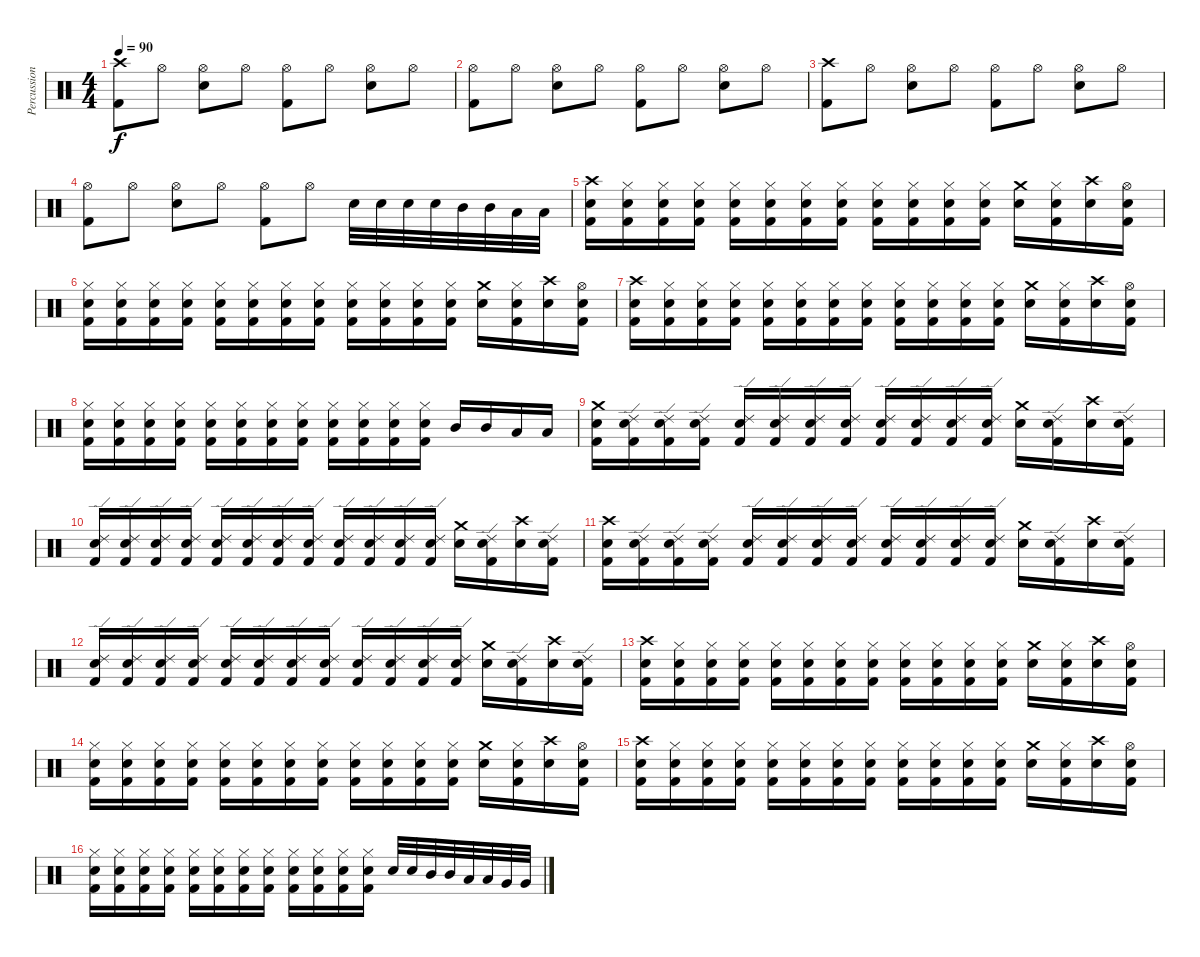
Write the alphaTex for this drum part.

\track ("Percussion" "Percussion") {instrument percussion}
\staff {score}
\articulation defaults
\ts (4 4)
\tempo 90
\clef neutral
\ks c
("Crash high (hit)" "Kick (hit) 2").8{dy f} "Hi-Hat (open)".8 ("Hi-Hat (open)" "Snare (hit) 2").8 "Hi-Hat (open)".8 ("Hi-Hat (open)" "Kick (hit) 2").8 "Hi-Hat (open)".8 ("Hi-Hat (open)" "Snare (hit) 2").8 "Hi-Hat (open)".8 |
("Hi-Hat (open)" "Kick (hit) 2").8 "Hi-Hat (open)".8 ("Hi-Hat (open)" "Snare (hit) 2").8 "Hi-Hat (open)".8 ("Hi-Hat (open)" "Kick (hit) 2").8 "Hi-Hat (open)".8 ("Hi-Hat (open)" "Snare (hit) 2").8 "Hi-Hat (open)".8 |
("Crash high (hit)" "Kick (hit) 2").8 "Hi-Hat (open)".8 ("Hi-Hat (open)" "Snare (hit) 2").8 "Hi-Hat (open)".8 ("Hi-Hat (open)" "Kick (hit) 2").8 "Hi-Hat (open)".8 ("Hi-Hat (open)" "Snare (hit) 2").8 "Hi-Hat (open)".8 |
("Hi-Hat (open)" "Kick (hit) 2").8 "Hi-Hat (open)".8 ("Hi-Hat (open)" "Snare (hit) 2").8 "Hi-Hat (open)".8 ("Hi-Hat (open)" "Kick (hit) 2").8 "Hi-Hat (open)".8 "Snare (hit) 2".32 "Snare (hit) 2".32 "Snare (hit) 2".32 "Snare (hit) 2".32 "Mid Tom (hit)".32 "Mid Tom (hit)".32 "Low Tom (hit)".32 "Low Tom (hit)".32 |
("Crash high (hit)" "Snare (hit) 2" "Kick (hit) 2").16 ("Hi-Hat (closed)" "Snare (hit) 2" "Kick (hit) 2").16 ("Hi-Hat (closed)" "Snare (hit) 2" "Kick (hit) 2").16 ("Hi-Hat (closed)" "Snare (hit) 2" "Kick (hit) 2").16 ("Hi-Hat (closed)" "Snare (hit) 2" "Kick (hit) 2").16 ("Hi-Hat (closed)" "Snare (hit) 2" "Kick (hit) 2").16 ("Hi-Hat (closed)" "Snare (hit) 2" "Kick (hit) 2").16 ("Hi-Hat (closed)" "Snare (hit) 2" "Kick (hit) 2").16 ("Hi-Hat (closed)" "Snare (hit) 2" "Kick (hit) 2").16 ("Hi-Hat (closed)" "Snare (hit) 2" "Kick (hit) 2").16 ("Hi-Hat (closed)" "Snare (hit) 2" "Kick (hit) 2").16 ("Hi-Hat (closed)" "Snare (hit) 2" "Kick (hit) 2").16 ("Crash medium (hit)" "Snare (hit) 2").16 ("Hi-Hat (closed)" "Snare (hit) 2" "Kick (hit) 2").16 ("Crash high (hit)" "Snare (hit) 2").16 ("Hi-Hat (open)" "Snare (hit) 2" "Kick (hit) 2").16 |
("Hi-Hat (closed)" "Snare (hit) 2" "Kick (hit) 2").16 ("Hi-Hat (closed)" "Snare (hit) 2" "Kick (hit) 2").16 ("Hi-Hat (closed)" "Snare (hit) 2" "Kick (hit) 2").16 ("Hi-Hat (closed)" "Snare (hit) 2" "Kick (hit) 2").16 ("Hi-Hat (closed)" "Snare (hit) 2" "Kick (hit) 2").16 ("Hi-Hat (closed)" "Snare (hit) 2" "Kick (hit) 2").16 ("Hi-Hat (closed)" "Snare (hit) 2" "Kick (hit) 2").16 ("Hi-Hat (closed)" "Snare (hit) 2" "Kick (hit) 2").16 ("Hi-Hat (closed)" "Snare (hit) 2" "Kick (hit) 2").16 ("Hi-Hat (closed)" "Snare (hit) 2" "Kick (hit) 2").16 ("Hi-Hat (closed)" "Snare (hit) 2" "Kick (hit) 2").16 ("Hi-Hat (closed)" "Snare (hit) 2" "Kick (hit) 2").16 ("Crash medium (hit)" "Snare (hit) 2").16 ("Hi-Hat (closed)" "Snare (hit) 2" "Kick (hit) 2").16 ("Crash high (hit)" "Snare (hit) 2").16 ("Hi-Hat (open)" "Snare (hit) 2" "Kick (hit) 2").16 |
("Crash high (hit)" "Snare (hit) 2" "Kick (hit) 2").16 ("Hi-Hat (closed)" "Snare (hit) 2" "Kick (hit) 2").16 ("Hi-Hat (closed)" "Snare (hit) 2" "Kick (hit) 2").16 ("Hi-Hat (closed)" "Snare (hit) 2" "Kick (hit) 2").16 ("Hi-Hat (closed)" "Snare (hit) 2" "Kick (hit) 2").16 ("Hi-Hat (closed)" "Snare (hit) 2" "Kick (hit) 2").16 ("Hi-Hat (closed)" "Snare (hit) 2" "Kick (hit) 2").16 ("Hi-Hat (closed)" "Snare (hit) 2" "Kick (hit) 2").16 ("Hi-Hat (closed)" "Snare (hit) 2" "Kick (hit) 2").16 ("Hi-Hat (closed)" "Snare (hit) 2" "Kick (hit) 2").16 ("Hi-Hat (closed)" "Snare (hit) 2" "Kick (hit) 2").16 ("Hi-Hat (closed)" "Snare (hit) 2" "Kick (hit) 2").16 ("Crash medium (hit)" "Snare (hit) 2").16 ("Hi-Hat (closed)" "Snare (hit) 2" "Kick (hit) 2").16 ("Crash high (hit)" "Snare (hit) 2").16 ("Hi-Hat (open)" "Snare (hit) 2" "Kick (hit) 2").16 |
("Hi-Hat (closed)" "Snare (hit) 2" "Kick (hit) 2").16 ("Hi-Hat (closed)" "Snare (hit) 2" "Kick (hit) 2").16 ("Hi-Hat (closed)" "Snare (hit) 2" "Kick (hit) 2").16 ("Hi-Hat (closed)" "Snare (hit) 2" "Kick (hit) 2").16 ("Hi-Hat (closed)" "Snare (hit) 2" "Kick (hit) 2").16 ("Hi-Hat (closed)" "Snare (hit) 2" "Kick (hit) 2").16 ("Hi-Hat (closed)" "Snare (hit) 2" "Kick (hit) 2").16 ("Hi-Hat (closed)" "Snare (hit) 2" "Kick (hit) 2").16 ("Hi-Hat (closed)" "Snare (hit) 2" "Kick (hit) 2").16 ("Hi-Hat (closed)" "Snare (hit) 2" "Kick (hit) 2").16 ("Hi-Hat (closed)" "Snare (hit) 2" "Kick (hit) 2").16 ("Hi-Hat (closed)" "Snare (hit) 2" "Kick (hit) 2").16 "Mid Tom (hit)".16 "Mid Tom (hit)".16 "Low Tom (hit)".16 "Low Tom (hit)".16 |
("Crash medium (hit)" "Snare (hit) 2" "Kick (hit) 2").16 ("Ride (edge) 2" "Snare (hit) 2" "Kick (hit) 2").16 ("Ride (edge) 2" "Snare (hit) 2" "Kick (hit) 2").16 ("Ride (edge) 2" "Snare (hit) 2" "Kick (hit) 2").16 ("Ride (edge) 2" "Snare (hit) 2" "Kick (hit) 2").16 ("Ride (edge) 2" "Snare (hit) 2" "Kick (hit) 2").16 ("Ride (edge) 2" "Snare (hit) 2" "Kick (hit) 2").16 ("Ride (edge) 2" "Snare (hit) 2" "Kick (hit) 2").16 ("Ride (edge) 2" "Snare (hit) 2" "Kick (hit) 2").16 ("Ride (edge) 2" "Snare (hit) 2" "Kick (hit) 2").16 ("Ride (edge) 2" "Snare (hit) 2" "Kick (hit) 2").16 ("Ride (edge) 2" "Snare (hit) 2" "Kick (hit) 2").16 ("Crash medium (hit)" "Snare (hit) 2").16 ("Ride (edge) 2" "Snare (hit) 2" "Kick (hit) 2").16 ("Crash high (hit)" "Snare (hit) 2").16 ("Ride (edge) 2" "Snare (hit) 2" "Kick (hit) 2").16 |
("Ride (edge) 2" "Snare (hit) 2" "Kick (hit) 2").16 ("Ride (edge) 2" "Snare (hit) 2" "Kick (hit) 2").16 ("Ride (edge) 2" "Snare (hit) 2" "Kick (hit) 2").16 ("Ride (edge) 2" "Snare (hit) 2" "Kick (hit) 2").16 ("Ride (edge) 2" "Snare (hit) 2" "Kick (hit) 2").16 ("Ride (edge) 2" "Snare (hit) 2" "Kick (hit) 2").16 ("Ride (edge) 2" "Snare (hit) 2" "Kick (hit) 2").16 ("Ride (edge) 2" "Snare (hit) 2" "Kick (hit) 2").16 ("Ride (edge) 2" "Snare (hit) 2" "Kick (hit) 2").16 ("Ride (edge) 2" "Snare (hit) 2" "Kick (hit) 2").16 ("Ride (edge) 2" "Snare (hit) 2" "Kick (hit) 2").16 ("Ride (edge) 2" "Snare (hit) 2" "Kick (hit) 2").16 ("Crash medium (hit)" "Snare (hit) 2").16 ("Ride (edge) 2" "Snare (hit) 2" "Kick (hit) 2").16 ("Crash high (hit)" "Snare (hit) 2").16 ("Ride (edge) 2" "Snare (hit) 2" "Kick (hit) 2").16 |
("Crash high (hit)" "Snare (hit) 2" "Kick (hit) 2").16 ("Ride (edge) 2" "Snare (hit) 2" "Kick (hit) 2").16 ("Ride (edge) 2" "Snare (hit) 2" "Kick (hit) 2").16 ("Ride (edge) 2" "Snare (hit) 2" "Kick (hit) 2").16 ("Ride (edge) 2" "Snare (hit) 2" "Kick (hit) 2").16 ("Ride (edge) 2" "Snare (hit) 2" "Kick (hit) 2").16 ("Ride (edge) 2" "Snare (hit) 2" "Kick (hit) 2").16 ("Ride (edge) 2" "Snare (hit) 2" "Kick (hit) 2").16 ("Ride (edge) 2" "Snare (hit) 2" "Kick (hit) 2").16 ("Ride (edge) 2" "Snare (hit) 2" "Kick (hit) 2").16 ("Ride (edge) 2" "Snare (hit) 2" "Kick (hit) 2").16 ("Ride (edge) 2" "Snare (hit) 2" "Kick (hit) 2").16 ("Crash medium (hit)" "Snare (hit) 2").16 ("Ride (edge) 2" "Snare (hit) 2" "Kick (hit) 2").16 ("Crash high (hit)" "Snare (hit) 2").16 ("Ride (edge) 2" "Snare (hit) 2" "Kick (hit) 2").16 |
("Ride (edge) 2" "Snare (hit) 2" "Kick (hit) 2").16 ("Ride (edge) 2" "Snare (hit) 2" "Kick (hit) 2").16 ("Ride (edge) 2" "Snare (hit) 2" "Kick (hit) 2").16 ("Ride (edge) 2" "Snare (hit) 2" "Kick (hit) 2").16 ("Ride (edge) 2" "Snare (hit) 2" "Kick (hit) 2").16 ("Ride (edge) 2" "Snare (hit) 2" "Kick (hit) 2").16 ("Ride (edge) 2" "Snare (hit) 2" "Kick (hit) 2").16 ("Ride (edge) 2" "Snare (hit) 2" "Kick (hit) 2").16 ("Ride (edge) 2" "Snare (hit) 2" "Kick (hit) 2").16 ("Ride (edge) 2" "Snare (hit) 2" "Kick (hit) 2").16 ("Ride (edge) 2" "Snare (hit) 2" "Kick (hit) 2").16 ("Ride (edge) 2" "Snare (hit) 2" "Kick (hit) 2").16 ("Crash medium (hit)" "Snare (hit) 2").16 ("Ride (edge) 2" "Snare (hit) 2" "Kick (hit) 2").16 ("Crash high (hit)" "Snare (hit) 2").16 ("Ride (edge) 2" "Snare (hit) 2" "Kick (hit) 2").16 |
("Crash high (hit)" "Snare (hit) 2" "Kick (hit) 2").16 ("Hi-Hat (closed)" "Snare (hit) 2" "Kick (hit) 2").16 ("Hi-Hat (closed)" "Snare (hit) 2" "Kick (hit) 2").16 ("Hi-Hat (closed)" "Snare (hit) 2" "Kick (hit) 2").16 ("Hi-Hat (closed)" "Snare (hit) 2" "Kick (hit) 2").16 ("Hi-Hat (closed)" "Snare (hit) 2" "Kick (hit) 2").16 ("Hi-Hat (closed)" "Snare (hit) 2" "Kick (hit) 2").16 ("Hi-Hat (closed)" "Snare (hit) 2" "Kick (hit) 2").16 ("Hi-Hat (closed)" "Snare (hit) 2" "Kick (hit) 2").16 ("Hi-Hat (closed)" "Snare (hit) 2" "Kick (hit) 2").16 ("Hi-Hat (closed)" "Snare (hit) 2" "Kick (hit) 2").16 ("Hi-Hat (closed)" "Snare (hit) 2" "Kick (hit) 2").16 ("Crash medium (hit)" "Snare (hit) 2").16 ("Hi-Hat (closed)" "Snare (hit) 2" "Kick (hit) 2").16 ("Crash high (hit)" "Snare (hit) 2").16 ("Hi-Hat (open)" "Snare (hit) 2" "Kick (hit) 2").16 |
("Hi-Hat (closed)" "Snare (hit) 2" "Kick (hit) 2").16 ("Hi-Hat (closed)" "Snare (hit) 2" "Kick (hit) 2").16 ("Hi-Hat (closed)" "Snare (hit) 2" "Kick (hit) 2").16 ("Hi-Hat (closed)" "Snare (hit) 2" "Kick (hit) 2").16 ("Hi-Hat (closed)" "Snare (hit) 2" "Kick (hit) 2").16 ("Hi-Hat (closed)" "Snare (hit) 2" "Kick (hit) 2").16 ("Hi-Hat (closed)" "Snare (hit) 2" "Kick (hit) 2").16 ("Hi-Hat (closed)" "Snare (hit) 2" "Kick (hit) 2").16 ("Hi-Hat (closed)" "Snare (hit) 2" "Kick (hit) 2").16 ("Hi-Hat (closed)" "Snare (hit) 2" "Kick (hit) 2").16 ("Hi-Hat (closed)" "Snare (hit) 2" "Kick (hit) 2").16 ("Hi-Hat (closed)" "Snare (hit) 2" "Kick (hit) 2").16 ("Crash medium (hit)" "Snare (hit) 2").16 ("Hi-Hat (closed)" "Snare (hit) 2" "Kick (hit) 2").16 ("Crash high (hit)" "Snare (hit) 2").16 ("Hi-Hat (open)" "Snare (hit) 2" "Kick (hit) 2").16 |
("Crash high (hit)" "Snare (hit) 2" "Kick (hit) 2").16 ("Hi-Hat (closed)" "Snare (hit) 2" "Kick (hit) 2").16 ("Hi-Hat (closed)" "Snare (hit) 2" "Kick (hit) 2").16 ("Hi-Hat (closed)" "Snare (hit) 2" "Kick (hit) 2").16 ("Hi-Hat (closed)" "Snare (hit) 2" "Kick (hit) 2").16 ("Hi-Hat (closed)" "Snare (hit) 2" "Kick (hit) 2").16 ("Hi-Hat (closed)" "Snare (hit) 2" "Kick (hit) 2").16 ("Hi-Hat (closed)" "Snare (hit) 2" "Kick (hit) 2").16 ("Hi-Hat (closed)" "Snare (hit) 2" "Kick (hit) 2").16 ("Hi-Hat (closed)" "Snare (hit) 2" "Kick (hit) 2").16 ("Hi-Hat (closed)" "Snare (hit) 2" "Kick (hit) 2").16 ("Hi-Hat (closed)" "Snare (hit) 2" "Kick (hit) 2").16 ("Crash medium (hit)" "Snare (hit) 2").16 ("Hi-Hat (closed)" "Snare (hit) 2" "Kick (hit) 2").16 ("Crash high (hit)" "Snare (hit) 2").16 ("Hi-Hat (open)" "Snare (hit) 2" "Kick (hit) 2").16 |
("Hi-Hat (closed)" "Snare (hit) 2" "Kick (hit) 2").16 ("Hi-Hat (closed)" "Snare (hit) 2" "Kick (hit) 2").16 ("Hi-Hat (closed)" "Snare (hit) 2" "Kick (hit) 2").16 ("Hi-Hat (closed)" "Snare (hit) 2" "Kick (hit) 2").16 ("Hi-Hat (closed)" "Snare (hit) 2" "Kick (hit) 2").16 ("Hi-Hat (closed)" "Snare (hit) 2" "Kick (hit) 2").16 ("Hi-Hat (closed)" "Snare (hit) 2" "Kick (hit) 2").16 ("Hi-Hat (closed)" "Snare (hit) 2" "Kick (hit) 2").16 ("Hi-Hat (closed)" "Snare (hit) 2" "Kick (hit) 2").16 ("Hi-Hat (closed)" "Snare (hit) 2" "Kick (hit) 2").16 ("Hi-Hat (closed)" "Snare (hit) 2" "Kick (hit) 2").16 ("Hi-Hat (closed)" "Snare (hit) 2" "Kick (hit) 2").16 "Snare (hit) 2".32 "Snare (hit) 2".32 "Mid Tom (hit)".32 "Mid Tom (hit)".32 "Low Tom (hit)".32 "Low Tom (hit)".32 "Very Low Tom (hit)".32 "Very Low Tom (hit)".32
